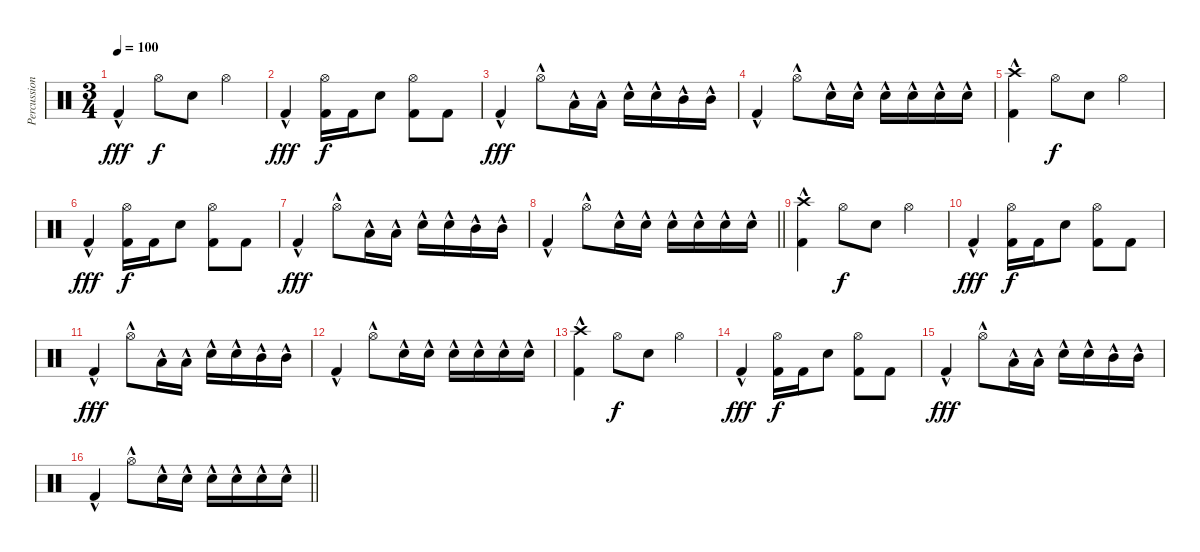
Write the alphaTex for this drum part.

\track ("Percussion" "Percussion") {instrument percussion}
\staff {score}
\articulation defaults
\ts (3 4)
\tempo 100
\clef neutral
\ks c "Kick (hit) 2"{hac}.4{dy fff} "Hi-Hat (open)".8{dy f} "Snare (hit) 2".8 "Hi-Hat (open)".4
|
"Kick (hit) 2"{hac}.4{dy fff} ("Hi-Hat (open)" "Kick (hit) 2").16{dy f} "Kick (hit) 2".16 "Snare (hit) 2".8 ("Hi-Hat (open)" "Kick (hit) 2").8 "Kick (hit) 2".8 |
"Kick (hit) 2"{hac}.4{dy fff} "Hi-Hat (open)"{hac}.8 "Low Tom (hit)"{hac}.16 "Low Tom (hit)"{hac}.16 "Snare (hit) 2"{hac}.16 "Snare (hit) 2"{hac}.16 "Mid Tom (hit)"{hac}.16 "Mid Tom (hit)"{hac}.16 |
"Kick (hit) 2"{hac}.4 "Hi-Hat (open)"{hac}.8 "Snare (hit) 2"{hac}.16 "Snare (hit) 2"{hac}.16 "Snare (hit) 2"{hac}.16 "Snare (hit) 2"{hac}.16 "Snare (hit) 2"{hac}.16 "Snare (hit) 2"{hac}.16 |
("Crash high (hit)" "Kick (hit) 2"{hac}).4 "Hi-Hat (open)".8{dy f} "Snare (hit) 2".8 "Hi-Hat (open)".4 |
"Kick (hit) 2"{hac}.4{dy fff} ("Hi-Hat (open)" "Kick (hit) 2").16{dy f} "Kick (hit) 2".16 "Snare (hit) 2".8 ("Hi-Hat (open)" "Kick (hit) 2").8 "Kick (hit) 2".8 |
"Kick (hit) 2"{hac}.4{dy fff} "Hi-Hat (open)"{hac}.8 "Low Tom (hit)"{hac}.16 "Low Tom (hit)"{hac}.16 "Snare (hit) 2"{hac}.16 "Snare (hit) 2"{hac}.16 "Mid Tom (hit)"{hac}.16 "Mid Tom (hit)"{hac}.16 |
\barLineRight lightlight "Kick (hit) 2"{hac}.4 "Hi-Hat (open)"{hac}.8 "Snare (hit) 2"{hac}.16 "Snare (hit) 2"{hac}.16 "Snare (hit) 2"{hac}.16 "Snare (hit) 2"{hac}.16 "Snare (hit) 2"{hac}.16 "Snare (hit) 2"{hac}.16
|
("Crash high (hit)" "Kick (hit) 2"{hac}).4 "Hi-Hat (open)".8{dy f} "Snare (hit) 2".8 "Hi-Hat (open)".4 |
"Kick (hit) 2"{hac}.4{dy fff} ("Hi-Hat (open)" "Kick (hit) 2").16{dy f} "Kick (hit) 2".16 "Snare (hit) 2".8 ("Hi-Hat (open)" "Kick (hit) 2").8 "Kick (hit) 2".8 |
"Kick (hit) 2"{hac}.4{dy fff} "Hi-Hat (open)"{hac}.8 "Low Tom (hit)"{hac}.16 "Low Tom (hit)"{hac}.16 "Snare (hit) 2"{hac}.16 "Snare (hit) 2"{hac}.16 "Mid Tom (hit)"{hac}.16 "Mid Tom (hit)"{hac}.16 |
"Kick (hit) 2"{hac}.4 "Hi-Hat (open)"{hac}.8 "Snare (hit) 2"{hac}.16 "Snare (hit) 2"{hac}.16 "Snare (hit) 2"{hac}.16 "Snare (hit) 2"{hac}.16 "Snare (hit) 2"{hac}.16 "Snare (hit) 2"{hac}.16 |
("Crash high (hit)" "Kick (hit) 2"{hac}).4 "Hi-Hat (open)".8{dy f} "Snare (hit) 2".8 "Hi-Hat (open)".4 |
"Kick (hit) 2"{hac}.4{dy fff} ("Hi-Hat (open)" "Kick (hit) 2").16{dy f} "Kick (hit) 2".16 "Snare (hit) 2".8 ("Hi-Hat (open)" "Kick (hit) 2").8 "Kick (hit) 2".8 |
"Kick (hit) 2"{hac}.4{dy fff} "Hi-Hat (open)"{hac}.8 "Low Tom (hit)"{hac}.16 "Low Tom (hit)"{hac}.16 "Snare (hit) 2"{hac}.16 "Snare (hit) 2"{hac}.16 "Mid Tom (hit)"{hac}.16 "Mid Tom (hit)"{hac}.16 |
\barLineRight lightlight "Kick (hit) 2"{hac}.4 "Hi-Hat (open)"{hac}.8 "Snare (hit) 2"{hac}.16 "Snare (hit) 2"{hac}.16 "Snare (hit) 2"{hac}.16 "Snare (hit) 2"{hac}.16 "Snare (hit) 2"{hac}.16 "Snare (hit) 2"{hac}.16
